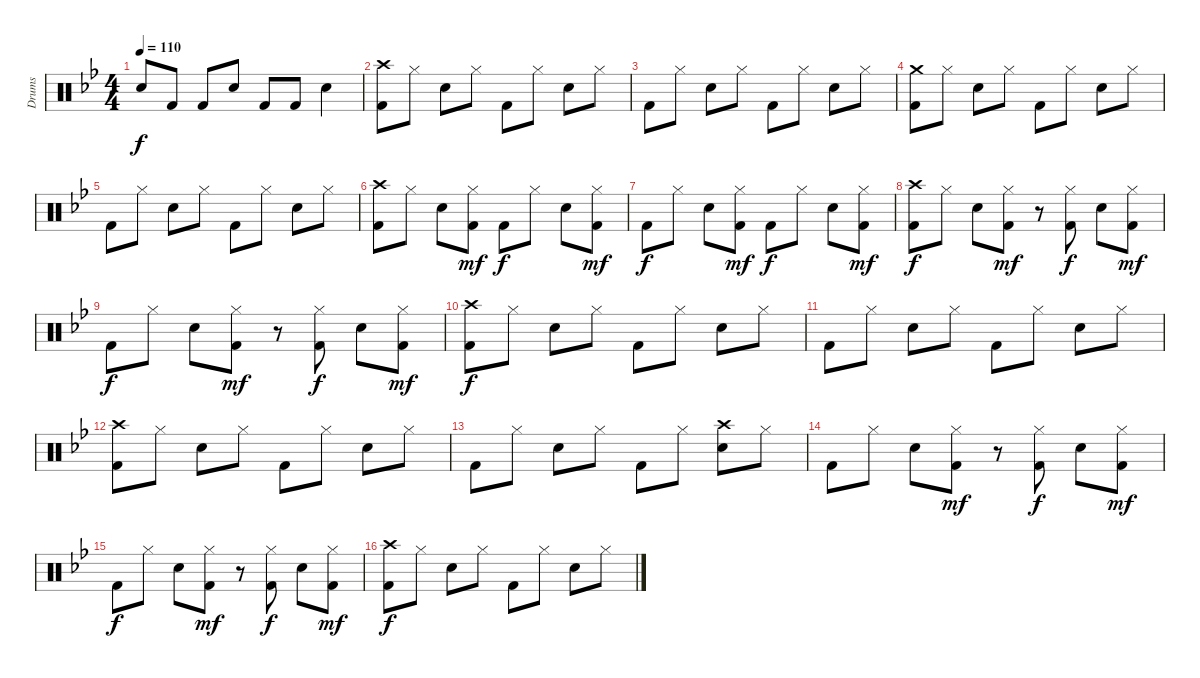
\track ("Drums" "Drums") {instrument percussion}
\staff {score}
\articulation defaults
\ts (4 4)
\tempo 110
\clef neutral
\ks gminor "Snare (hit) 2".8{dy f} "Kick (hit) 2".8 "Kick (hit) 2".8 "Snare (hit) 2".8 "Kick (hit) 2".8 "Kick (hit) 2".8 "Snare (hit) 2".4
|
("Crash high (hit)" "Kick (hit) 2").8 "Hi-Hat (closed)".8 "Snare (hit) 2".8 "Hi-Hat (closed)".8 "Kick (hit) 2".8 "Hi-Hat (closed)".8 "Snare (hit) 2".8 "Hi-Hat (closed)".8 |
"Kick (hit) 2".8 "Hi-Hat (closed)".8 "Snare (hit) 2".8 "Hi-Hat (closed)".8 "Kick (hit) 2".8 "Hi-Hat (closed)".8 "Snare (hit) 2".8 "Hi-Hat (closed)".8 |
("Crash medium (hit)" "Kick (hit) 2").8 "Hi-Hat (closed)".8 "Snare (hit) 2".8 "Hi-Hat (closed)".8 "Kick (hit) 2".8 "Hi-Hat (closed)".8 "Snare (hit) 2".8 "Hi-Hat (closed)".8 |
"Kick (hit) 2".8 "Hi-Hat (closed)".8 "Snare (hit) 2".8 "Hi-Hat (closed)".8 "Kick (hit) 2".8 "Hi-Hat (closed)".8 "Snare (hit) 2".8 "Hi-Hat (closed)".8 |
("Crash high (hit)" "Kick (hit) 2").8 "Hi-Hat (closed)".8 "Snare (hit) 2".8 ("Hi-Hat (closed)" "Kick (hit) 2").8{dy mf} "Kick (hit) 2".8{dy f} "Hi-Hat (closed)".8 "Snare (hit) 2".8 ("Hi-Hat (closed)" "Kick (hit) 2").8{dy mf} |
"Kick (hit) 2".8{dy f} "Hi-Hat (closed)".8 "Snare (hit) 2".8 ("Hi-Hat (closed)" "Kick (hit) 2").8{dy mf} "Kick (hit) 2".8{dy f} "Hi-Hat (closed)".8 "Snare (hit) 2".8 ("Hi-Hat (closed)" "Kick (hit) 2").8{dy mf} |
("Crash high (hit)" "Kick (hit) 2").8{dy f} "Hi-Hat (closed)".8 "Snare (hit) 2".8 ("Hi-Hat (closed)" "Kick (hit) 2").8{dy mf} r.8 ("Hi-Hat (closed)" "Kick (hit) 2").8{dy f} "Snare (hit) 2".8 ("Hi-Hat (closed)" "Kick (hit) 2").8{dy mf} |
"Kick (hit) 2".8{dy f} "Hi-Hat (closed)".8 "Snare (hit) 2".8 ("Hi-Hat (closed)" "Kick (hit) 2").8{dy mf} r.8 ("Hi-Hat (closed)" "Kick (hit) 2").8{dy f} "Snare (hit) 2".8 ("Hi-Hat (closed)" "Kick (hit) 2").8{dy mf} |
("Crash high (hit)" "Kick (hit) 2").8{dy f} "Hi-Hat (closed)".8 "Snare (hit) 2".8 "Hi-Hat (closed)".8 "Kick (hit) 2".8 "Hi-Hat (closed)".8 "Snare (hit) 2".8 "Hi-Hat (closed)".8 |
"Kick (hit) 2".8 "Hi-Hat (closed)".8 "Snare (hit) 2".8 "Hi-Hat (closed)".8 "Kick (hit) 2".8 "Hi-Hat (closed)".8 "Snare (hit) 2".8 "Hi-Hat (closed)".8 |
("Crash high (hit)" "Kick (hit) 2").8 "Hi-Hat (closed)".8 "Snare (hit) 2".8 "Hi-Hat (closed)".8 "Kick (hit) 2".8 "Hi-Hat (closed)".8 "Snare (hit) 2".8 "Hi-Hat (closed)".8 |
"Kick (hit) 2".8 "Hi-Hat (closed)".8 "Snare (hit) 2".8 "Hi-Hat (closed)".8 "Kick (hit) 2".8 "Hi-Hat (closed)".8 ("Crash high (hit)" "Snare (hit) 2").8 "Hi-Hat (closed)".8 |
"Kick (hit) 2".8 "Hi-Hat (closed)".8 "Snare (hit) 2".8 ("Hi-Hat (closed)" "Kick (hit) 2").8{dy mf} r.8 ("Hi-Hat (closed)" "Kick (hit) 2").8{dy f} "Snare (hit) 2".8 ("Hi-Hat (closed)" "Kick (hit) 2").8{dy mf} |
"Kick (hit) 2".8{dy f} "Hi-Hat (closed)".8 "Snare (hit) 2".8 ("Hi-Hat (closed)" "Kick (hit) 2").8{dy mf} r.8 ("Hi-Hat (closed)" "Kick (hit) 2").8{dy f} "Snare (hit) 2".8 ("Hi-Hat (closed)" "Kick (hit) 2").8{dy mf} |
("Crash high (hit)" "Kick (hit) 2").8{dy f} "Hi-Hat (closed)".8 "Snare (hit) 2".8 "Hi-Hat (closed)".8 "Kick (hit) 2".8 "Hi-Hat (closed)".8 "Snare (hit) 2".8 "Hi-Hat (closed)".8
